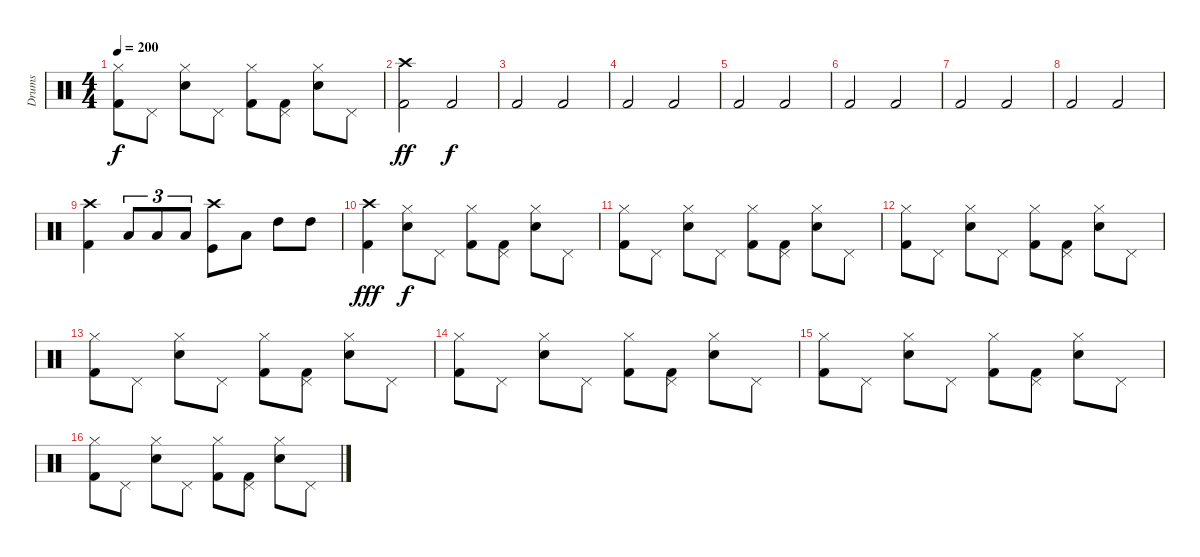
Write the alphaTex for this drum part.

\track ("Drums" "Drums") {instrument percussion}
\staff {score}
\articulation defaults
\ts (4 4)
\tempo 200
\clef neutral
\ks c
("Hi-Hat (closed)" "Kick (hit) 2").8{dy f} "Pedal Hi-Hat (hit)".8 ("Hi-Hat (closed)" "Snare (hit) 2").8 "Pedal Hi-Hat (hit)".8 ("Hi-Hat (closed)" "Kick (hit) 2").8 ("Pedal Hi-Hat (hit)" "Kick (hit) 2").8 ("Hi-Hat (closed)" "Snare (hit) 2").8 "Pedal Hi-Hat (hit)".8 |
("Crash high (hit)" "Kick (hit) 2").2{dy ff} "Kick (hit) 2".2{dy f} |
"Kick (hit) 2".2 "Kick (hit) 2".2 |
"Kick (hit) 2".2 "Kick (hit) 2".2 |
"Kick (hit) 2".2 "Kick (hit) 2".2 |
"Kick (hit) 2".2 "Kick (hit) 2".2 |
"Kick (hit) 2".2 "Kick (hit) 2".2 |
"Kick (hit) 2".2 "Kick (hit) 2".2 |
("Crash high (hit)" "Kick (hit) 2").4 "Low Tom (hit)".8{tu (3 2)} "Low Tom (hit)".8{tu (3 2)} "Low Tom (hit)".8{tu (3 2)} ("Crash high (hit)" "Kick (hit)").8 "Low Tom (hit)".8 "High Tom (hit)".8 "High Tom (hit)".8 |
("Crash high (hit)" "Kick (hit) 2").4{dy fff} ("Hi-Hat (closed)" "Snare (hit) 2").8{dy f} "Pedal Hi-Hat (hit)".8 ("Hi-Hat (closed)" "Kick (hit) 2").8 ("Pedal Hi-Hat (hit)" "Kick (hit) 2").8 ("Hi-Hat (closed)" "Snare (hit) 2").8 "Pedal Hi-Hat (hit)".8 |
("Hi-Hat (closed)" "Kick (hit) 2").8 "Pedal Hi-Hat (hit)".8 ("Hi-Hat (closed)" "Snare (hit) 2").8 "Pedal Hi-Hat (hit)".8 ("Hi-Hat (closed)" "Kick (hit) 2").8 ("Pedal Hi-Hat (hit)" "Kick (hit) 2").8 ("Hi-Hat (closed)" "Snare (hit) 2").8 "Pedal Hi-Hat (hit)".8 |
("Hi-Hat (closed)" "Kick (hit) 2").8 "Pedal Hi-Hat (hit)".8 ("Hi-Hat (closed)" "Snare (hit) 2").8 "Pedal Hi-Hat (hit)".8 ("Hi-Hat (closed)" "Kick (hit) 2").8 ("Pedal Hi-Hat (hit)" "Kick (hit) 2").8 ("Hi-Hat (closed)" "Snare (hit) 2").8 "Pedal Hi-Hat (hit)".8 |
("Hi-Hat (closed)" "Kick (hit) 2").8 "Pedal Hi-Hat (hit)".8 ("Hi-Hat (closed)" "Snare (hit) 2").8 "Pedal Hi-Hat (hit)".8 ("Hi-Hat (closed)" "Kick (hit) 2").8 ("Pedal Hi-Hat (hit)" "Kick (hit) 2").8 ("Hi-Hat (closed)" "Snare (hit) 2").8 "Pedal Hi-Hat (hit)".8 |
("Hi-Hat (closed)" "Kick (hit) 2").8 "Pedal Hi-Hat (hit)".8 ("Hi-Hat (closed)" "Snare (hit) 2").8 "Pedal Hi-Hat (hit)".8 ("Hi-Hat (closed)" "Kick (hit) 2").8 ("Pedal Hi-Hat (hit)" "Kick (hit) 2").8 ("Hi-Hat (closed)" "Snare (hit) 2").8 "Pedal Hi-Hat (hit)".8 |
("Hi-Hat (closed)" "Kick (hit) 2").8 "Pedal Hi-Hat (hit)".8 ("Hi-Hat (closed)" "Snare (hit) 2").8 "Pedal Hi-Hat (hit)".8 ("Hi-Hat (closed)" "Kick (hit) 2").8 ("Pedal Hi-Hat (hit)" "Kick (hit) 2").8 ("Hi-Hat (closed)" "Snare (hit) 2").8 "Pedal Hi-Hat (hit)".8 |
("Hi-Hat (closed)" "Kick (hit) 2").8 "Pedal Hi-Hat (hit)".8 ("Hi-Hat (closed)" "Snare (hit) 2").8 "Pedal Hi-Hat (hit)".8 ("Hi-Hat (closed)" "Kick (hit) 2").8 ("Pedal Hi-Hat (hit)" "Kick (hit) 2").8 ("Hi-Hat (closed)" "Snare (hit) 2").8 "Pedal Hi-Hat (hit)".8
